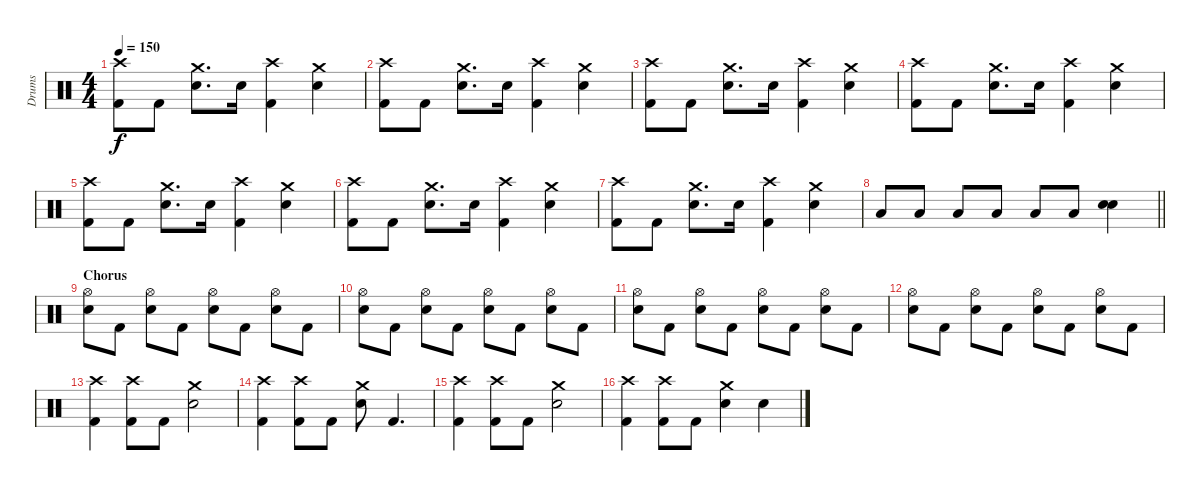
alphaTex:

\track ("Drums" "Drums") {instrument percussion}
\staff {score}
\articulation defaults
\ts (4 4)
\tempo 150
\clef neutral
\ks c
("Kick (hit) 2" "Crash high (hit)").8{dy f} "Kick (hit) 2".8 ("Electric Snare (hit)" "Crash medium (hit)").8{d} "Electric Snare (hit)".16 ("Kick (hit) 2" "Crash high (hit)").4 ("Electric Snare (hit)" "Crash medium (hit)").4 |
("Kick (hit) 2" "Crash high (hit)").8 "Kick (hit) 2".8 ("Electric Snare (hit)" "Crash medium (hit)").8{d} "Electric Snare (hit)".16 ("Kick (hit) 2" "Crash high (hit)").4 ("Electric Snare (hit)" "Crash medium (hit)").4 |
("Kick (hit) 2" "Crash high (hit)").8 "Kick (hit) 2".8 ("Electric Snare (hit)" "Crash medium (hit)").8{d} "Electric Snare (hit)".16 ("Kick (hit) 2" "Crash high (hit)").4 ("Electric Snare (hit)" "Crash medium (hit)").4 |
("Kick (hit) 2" "Crash high (hit)").8 "Kick (hit) 2".8 ("Electric Snare (hit)" "Crash medium (hit)").8{d} "Electric Snare (hit)".16 ("Kick (hit) 2" "Crash high (hit)").4 ("Electric Snare (hit)" "Crash medium (hit)").4 |
("Kick (hit) 2" "Crash high (hit)").8 "Kick (hit) 2".8 ("Electric Snare (hit)" "Crash medium (hit)").8{d} "Electric Snare (hit)".16 ("Kick (hit) 2" "Crash high (hit)").4 ("Electric Snare (hit)" "Crash medium (hit)").4 |
("Kick (hit) 2" "Crash high (hit)").8 "Kick (hit) 2".8 ("Electric Snare (hit)" "Crash medium (hit)").8{d} "Electric Snare (hit)".16 ("Kick (hit) 2" "Crash high (hit)").4 ("Electric Snare (hit)" "Crash medium (hit)").4 |
("Kick (hit) 2" "Crash high (hit)").8 "Kick (hit) 2".8 ("Electric Snare (hit)" "Crash medium (hit)").8{d} "Electric Snare (hit)".16 ("Kick (hit) 2" "Crash high (hit)").4 ("Electric Snare (hit)" "Crash medium (hit)").4 |
\barLineRight lightlight "Low Floor Tom (hit)".8 "Low Floor Tom (hit)".8 "Low Floor Tom (hit)".8 "Low Floor Tom (hit)".8 "Low Floor Tom (hit)".8 "Low Floor Tom (hit)".8
("Electric Snare (hit)" "Electric Snare (hit)").4 |
\section ("" "Chorus")
("Electric Snare (hit)" "Hi-Hat (open)").8 "Kick (hit) 2".8 ("Electric Snare (hit)" "Hi-Hat (open)").8 "Kick (hit) 2".8 ("Electric Snare (hit)" "Hi-Hat (open)").8 "Kick (hit) 2".8 ("Electric Snare (hit)" "Hi-Hat (open)").8 "Kick (hit) 2".8 |
("Electric Snare (hit)" "Hi-Hat (open)").8 "Kick (hit) 2".8 ("Electric Snare (hit)" "Hi-Hat (open)").8 "Kick (hit) 2".8 ("Electric Snare (hit)" "Hi-Hat (open)").8 "Kick (hit) 2".8 ("Electric Snare (hit)" "Hi-Hat (open)").8 "Kick (hit) 2".8 |
("Electric Snare (hit)" "Hi-Hat (open)").8 "Kick (hit) 2".8 ("Electric Snare (hit)" "Hi-Hat (open)").8 "Kick (hit) 2".8 ("Electric Snare (hit)" "Hi-Hat (open)").8 "Kick (hit) 2".8 ("Electric Snare (hit)" "Hi-Hat (open)").8 "Kick (hit) 2".8 |
("Electric Snare (hit)" "Hi-Hat (open)").8 "Kick (hit) 2".8 ("Electric Snare (hit)" "Hi-Hat (open)").8 "Kick (hit) 2".8 ("Electric Snare (hit)" "Hi-Hat (open)").8 "Kick (hit) 2".8 ("Electric Snare (hit)" "Hi-Hat (open)").8 "Kick (hit) 2".8 |
("Kick (hit) 2" "Crash high (hit)").4 ("Kick (hit) 2" "Crash high (hit)").8 "Kick (hit) 2".8 ("Electric Snare (hit)" "Crash medium (hit)").2 |
("Kick (hit) 2" "Crash high (hit)").4 ("Kick (hit) 2" "Crash high (hit)").8 "Kick (hit) 2".8 ("Electric Snare (hit)" "Crash medium (hit)").8 "Kick (hit) 2".4{d} |
("Kick (hit) 2" "Crash high (hit)").4 ("Kick (hit) 2" "Crash high (hit)").8 "Kick (hit) 2".8 ("Electric Snare (hit)" "Crash medium (hit)").2 |
("Kick (hit) 2" "Crash high (hit)").4 ("Kick (hit) 2" "Crash high (hit)").8 "Kick (hit) 2".8 ("Electric Snare (hit)" "Crash medium (hit)").4 "Electric Snare (hit)".4
